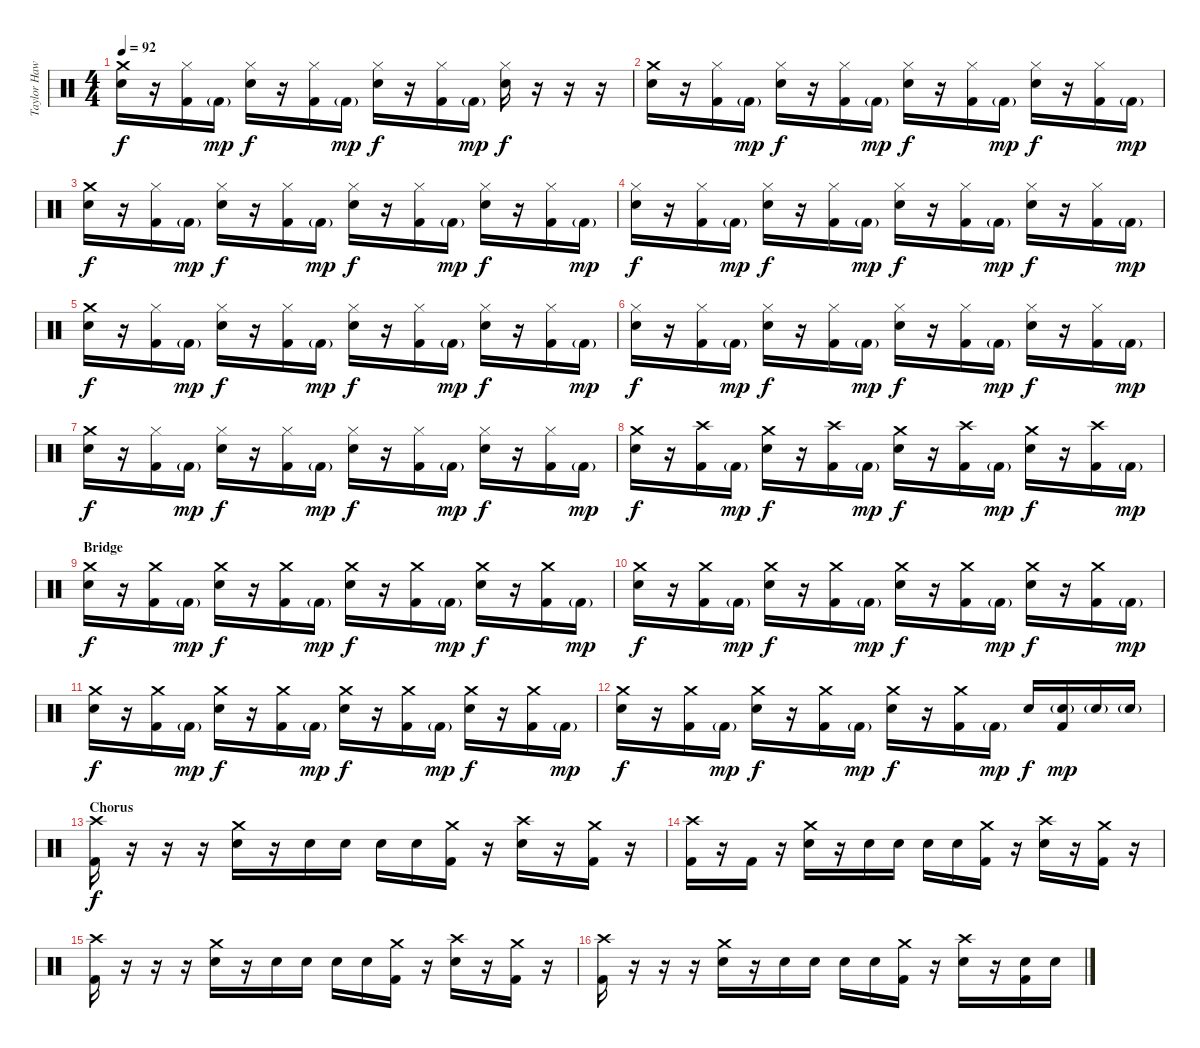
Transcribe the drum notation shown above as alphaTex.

\track ("Taylor Hawkins (Drums)" "Taylor Haw") {instrument percussion}
\staff {score}
\articulation defaults
\ts (4 4)
\tempo 92
\clef neutral
\ks c
("Crash medium (hit)" "Electric Snare (hit)").16{dy f} r.16 ("Hi-Hat (closed)" "Kick (hit) 2").16 "Kick (hit) 2"{g}.16{dy mp} ("Hi-Hat (closed)" "Electric Snare (hit)").16{dy f} r.16 ("Hi-Hat (closed)" "Kick (hit) 2").16 "Kick (hit) 2"{g}.16{dy mp} ("Hi-Hat (closed)" "Electric Snare (hit)").16{dy f} r.16 ("Hi-Hat (closed)" "Kick (hit) 2").16 "Kick (hit) 2"{g}.16{dy mp} ("Hi-Hat (closed)" "Electric Snare (hit)").16{dy f} r.16 r.16 r.16 |
("Crash medium (hit)" "Electric Snare (hit)").16 r.16 ("Hi-Hat (closed)" "Kick (hit) 2").16 "Kick (hit) 2"{g}.16{dy mp} ("Hi-Hat (closed)" "Electric Snare (hit)").16{dy f} r.16 ("Hi-Hat (closed)" "Kick (hit) 2").16 "Kick (hit) 2"{g}.16{dy mp} ("Hi-Hat (closed)" "Electric Snare (hit)").16{dy f} r.16 ("Hi-Hat (closed)" "Kick (hit) 2").16 "Kick (hit) 2"{g}.16{dy mp} ("Hi-Hat (closed)" "Electric Snare (hit)").16{dy f} r.16 ("Hi-Hat (closed)" "Kick (hit) 2").16 "Kick (hit) 2"{g}.16{dy mp} |
("Crash medium (hit)" "Electric Snare (hit)").16{dy f} r.16 ("Hi-Hat (closed)" "Kick (hit) 2").16 "Kick (hit) 2"{g}.16{dy mp} ("Hi-Hat (closed)" "Electric Snare (hit)").16{dy f} r.16 ("Hi-Hat (closed)" "Kick (hit) 2").16 "Kick (hit) 2"{g}.16{dy mp} ("Hi-Hat (closed)" "Electric Snare (hit)").16{dy f} r.16 ("Hi-Hat (closed)" "Kick (hit) 2").16 "Kick (hit) 2"{g}.16{dy mp} ("Hi-Hat (closed)" "Electric Snare (hit)").16{dy f} r.16 ("Hi-Hat (closed)" "Kick (hit) 2").16 "Kick (hit) 2"{g}.16{dy mp} |
("Hi-Hat (closed)" "Electric Snare (hit)").16{dy f} r.16 ("Hi-Hat (closed)" "Kick (hit) 2").16 "Kick (hit) 2"{g}.16{dy mp} ("Hi-Hat (closed)" "Electric Snare (hit)").16{dy f} r.16 ("Hi-Hat (closed)" "Kick (hit) 2").16 "Kick (hit) 2"{g}.16{dy mp} ("Hi-Hat (closed)" "Electric Snare (hit)").16{dy f} r.16 ("Hi-Hat (closed)" "Kick (hit) 2").16 "Kick (hit) 2"{g}.16{dy mp} ("Hi-Hat (closed)" "Electric Snare (hit)").16{dy f} r.16 ("Hi-Hat (closed)" "Kick (hit) 2").16 "Kick (hit) 2"{g}.16{dy mp} |
("Crash medium (hit)" "Electric Snare (hit)").16{dy f} r.16 ("Hi-Hat (closed)" "Kick (hit) 2").16 "Kick (hit) 2"{g}.16{dy mp} ("Hi-Hat (closed)" "Electric Snare (hit)").16{dy f} r.16 ("Hi-Hat (closed)" "Kick (hit) 2").16 "Kick (hit) 2"{g}.16{dy mp} ("Hi-Hat (closed)" "Electric Snare (hit)").16{dy f} r.16 ("Hi-Hat (closed)" "Kick (hit) 2").16 "Kick (hit) 2"{g}.16{dy mp} ("Hi-Hat (closed)" "Electric Snare (hit)").16{dy f} r.16 ("Hi-Hat (closed)" "Kick (hit) 2").16 "Kick (hit) 2"{g}.16{dy mp} |
("Hi-Hat (closed)" "Electric Snare (hit)").16{dy f} r.16 ("Hi-Hat (closed)" "Kick (hit) 2").16 "Kick (hit) 2"{g}.16{dy mp} ("Hi-Hat (closed)" "Electric Snare (hit)").16{dy f} r.16 ("Hi-Hat (closed)" "Kick (hit) 2").16 "Kick (hit) 2"{g}.16{dy mp} ("Hi-Hat (closed)" "Electric Snare (hit)").16{dy f} r.16 ("Hi-Hat (closed)" "Kick (hit) 2").16 "Kick (hit) 2"{g}.16{dy mp} ("Hi-Hat (closed)" "Electric Snare (hit)").16{dy f} r.16 ("Hi-Hat (closed)" "Kick (hit) 2").16 "Kick (hit) 2"{g}.16{dy mp} |
("Crash medium (hit)" "Electric Snare (hit)").16{dy f} r.16 ("Hi-Hat (closed)" "Kick (hit) 2").16 "Kick (hit) 2"{g}.16{dy mp} ("Hi-Hat (closed)" "Electric Snare (hit)").16{dy f} r.16 ("Hi-Hat (closed)" "Kick (hit) 2").16 "Kick (hit) 2"{g}.16{dy mp} ("Hi-Hat (closed)" "Electric Snare (hit)").16{dy f} r.16 ("Hi-Hat (closed)" "Kick (hit) 2").16 "Kick (hit) 2"{g}.16{dy mp} ("Hi-Hat (closed)" "Electric Snare (hit)").16{dy f} r.16 ("Hi-Hat (closed)" "Kick (hit) 2").16 "Kick (hit) 2"{g}.16{dy mp} |
("Crash medium (hit)" "Electric Snare (hit)").16{dy f} r.16 ("Crash high (hit)" "Kick (hit) 2").16 "Kick (hit) 2"{g}.16{dy mp} ("Crash medium (hit)" "Electric Snare (hit)").16{dy f} r.16 ("Crash high (hit)" "Kick (hit) 2").16 "Kick (hit) 2"{g}.16{dy mp} ("Crash medium (hit)" "Electric Snare (hit)").16{dy f} r.16 ("Crash high (hit)" "Kick (hit) 2").16 "Kick (hit) 2"{g}.16{dy mp} ("Crash medium (hit)" "Electric Snare (hit)").16{dy f} r.16 ("Crash high (hit)" "Kick (hit) 2").16 "Kick (hit) 2"{g}.16{dy mp} |
\section ("" "Bridge")
("Crash medium (hit)" "Electric Snare (hit)").16{dy f} r.16 ("Crash medium (hit)" "Kick (hit) 2").16 "Kick (hit) 2"{g}.16{dy mp} ("Crash medium (hit)" "Electric Snare (hit)").16{dy f} r.16 ("Crash medium (hit)" "Kick (hit) 2").16 "Kick (hit) 2"{g}.16{dy mp} ("Crash medium (hit)" "Electric Snare (hit)").16{dy f} r.16 ("Crash medium (hit)" "Kick (hit) 2").16 "Kick (hit) 2"{g}.16{dy mp} ("Crash medium (hit)" "Electric Snare (hit)").16{dy f} r.16 ("Crash medium (hit)" "Kick (hit) 2").16 "Kick (hit) 2"{g}.16{dy mp} |
("Crash medium (hit)" "Electric Snare (hit)").16{dy f} r.16 ("Crash medium (hit)" "Kick (hit) 2").16 "Kick (hit) 2"{g}.16{dy mp} ("Crash medium (hit)" "Electric Snare (hit)").16{dy f} r.16 ("Crash medium (hit)" "Kick (hit) 2").16 "Kick (hit) 2"{g}.16{dy mp} ("Crash medium (hit)" "Electric Snare (hit)").16{dy f} r.16 ("Crash medium (hit)" "Kick (hit) 2").16 "Kick (hit) 2"{g}.16{dy mp} ("Crash medium (hit)" "Electric Snare (hit)").16{dy f} r.16 ("Crash medium (hit)" "Kick (hit) 2").16 "Kick (hit) 2"{g}.16{dy mp} |
("Crash medium (hit)" "Electric Snare (hit)").16{dy f} r.16 ("Crash medium (hit)" "Kick (hit) 2").16 "Kick (hit) 2"{g}.16{dy mp} ("Crash medium (hit)" "Electric Snare (hit)").16{dy f} r.16 ("Crash medium (hit)" "Kick (hit) 2").16 "Kick (hit) 2"{g}.16{dy mp} ("Crash medium (hit)" "Electric Snare (hit)").16{dy f} r.16 ("Crash medium (hit)" "Kick (hit) 2").16 "Kick (hit) 2"{g}.16{dy mp} ("Crash medium (hit)" "Electric Snare (hit)").16{dy f} r.16 ("Crash medium (hit)" "Kick (hit) 2").16 "Kick (hit) 2"{g}.16{dy mp} |
("Crash medium (hit)" "Electric Snare (hit)").16{dy f} r.16 ("Crash medium (hit)" "Kick (hit) 2").16 "Kick (hit) 2"{g}.16{dy mp} ("Crash medium (hit)" "Electric Snare (hit)").16{dy f} r.16 ("Crash medium (hit)" "Kick (hit) 2").16 "Kick (hit) 2"{g}.16{dy mp} ("Crash medium (hit)" "Electric Snare (hit)").16{dy f} r.16 ("Crash medium (hit)" "Kick (hit) 2").16 "Kick (hit) 2"{g}.16{dy mp} "Electric Snare (hit)".16{dy f} ("Electric Snare (hit)"{g} "Kick (hit) 2").16{dy mp} "Electric Snare (hit)"{g}.16 "Electric Snare (hit)"{g}.16 |
\section ("" "Chorus")
("Crash high (hit)" "Kick (hit) 2").16{dy f} r.16 r.16 r.16 ("Crash medium (hit)" "Electric Snare (hit)").16 r.16 "Electric Snare (hit)".16 "Electric Snare (hit)".16 "Electric Snare (hit)".16 "Electric Snare (hit)".16 ("Crash medium (hit)" "Kick (hit) 2").16 r.16 ("Crash high (hit)" "Electric Snare (hit)").16 r.16 ("Crash medium (hit)" "Kick (hit) 2").16 r.16 |
("Crash high (hit)" "Kick (hit) 2").16 r.16 "Kick (hit) 2".16 r.16 ("Crash medium (hit)" "Electric Snare (hit)").16 r.16 "Electric Snare (hit)".16 "Electric Snare (hit)".16 "Electric Snare (hit)".16 "Electric Snare (hit)".16 ("Crash medium (hit)" "Kick (hit) 2").16 r.16 ("Crash high (hit)" "Electric Snare (hit)").16 r.16 ("Crash medium (hit)" "Kick (hit) 2").16 r.16 |
("Crash high (hit)" "Kick (hit) 2").16 r.16 r.16 r.16 ("Crash medium (hit)" "Electric Snare (hit)").16 r.16 "Electric Snare (hit)".16 "Electric Snare (hit)".16 "Electric Snare (hit)".16 "Electric Snare (hit)".16 ("Crash medium (hit)" "Kick (hit) 2").16 r.16 ("Crash high (hit)" "Electric Snare (hit)").16 r.16 ("Crash medium (hit)" "Kick (hit) 2").16 r.16 |
("Crash high (hit)" "Kick (hit) 2").16 r.16 r.16 r.16 ("Crash medium (hit)" "Electric Snare (hit)").16 r.16 "Electric Snare (hit)".16 "Electric Snare (hit)".16 "Electric Snare (hit)".16 "Electric Snare (hit)".16 ("Crash medium (hit)" "Kick (hit) 2").16 r.16 ("Crash high (hit)" "Electric Snare (hit)").16 r.16 ("Electric Snare (hit)" "Kick (hit) 2").16 "Electric Snare (hit)".16
